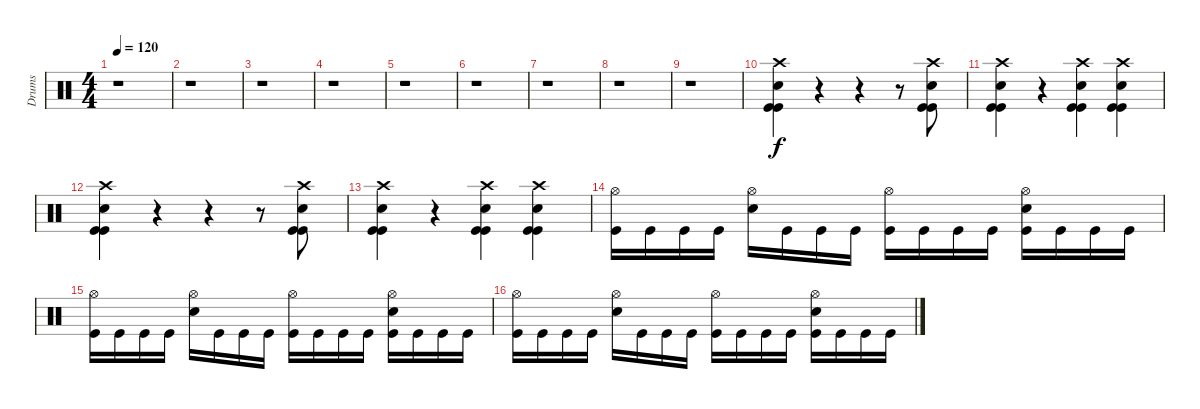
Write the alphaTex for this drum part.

\track ("Drums" "Drums") {instrument percussion}
\staff {score}
\articulation defaults
\ts (4 4)
\tempo 120
\clef neutral
\ks c
r.1{dy f} |
r.1 |
r.1 |
r.1 |
r.1 |
r.1 |
r.1 |
r.1 |
r.1 |
("Crash high (hit)" "Snare (hit) 2" "Kick (hit)" "Kick (hit)").4 r.4 r.4 r.8 ("Crash high (hit)" "Snare (hit) 2" "Kick (hit)" "Kick (hit)").8 |
("Crash high (hit)" "Snare (hit) 2" "Kick (hit)" "Kick (hit)").4 r.4 ("Crash high (hit)" "Snare (hit) 2" "Kick (hit)" "Kick (hit)").4 ("Crash high (hit)" "Snare (hit) 2" "Kick (hit)" "Kick (hit)").4 |
("Crash high (hit)" "Snare (hit) 2" "Kick (hit)" "Kick (hit)").4 r.4 r.4 r.8 ("Crash high (hit)" "Snare (hit) 2" "Kick (hit)" "Kick (hit)").8 |
("Crash high (hit)" "Snare (hit) 2" "Kick (hit)" "Kick (hit)").4 r.4 ("Crash high (hit)" "Snare (hit) 2" "Kick (hit)" "Kick (hit)").4 ("Crash high (hit)" "Snare (hit) 2" "Kick (hit)" "Kick (hit)").4 |
("Hi-Hat (open)" "Kick (hit)").16 "Kick (hit)".16 "Kick (hit)".16 "Kick (hit)".16 ("Hi-Hat (open)" "Snare (hit) 2").16 "Kick (hit)".16 "Kick (hit)".16 "Kick (hit)".16 ("Hi-Hat (open)" "Kick (hit)").16 "Kick (hit)".16 "Kick (hit)".16 "Kick (hit)".16 ("Hi-Hat (open)" "Snare (hit) 2" "Kick (hit)").16 "Kick (hit)".16 "Kick (hit)".16 "Kick (hit)".16 |
("Hi-Hat (open)" "Kick (hit)").16 "Kick (hit)".16 "Kick (hit)".16 "Kick (hit)".16 ("Hi-Hat (open)" "Snare (hit) 2").16 "Kick (hit)".16 "Kick (hit)".16 "Kick (hit)".16 ("Hi-Hat (open)" "Kick (hit)").16 "Kick (hit)".16 "Kick (hit)".16 "Kick (hit)".16 ("Hi-Hat (open)" "Snare (hit) 2" "Kick (hit)").16 "Kick (hit)".16 "Kick (hit)".16 "Kick (hit)".16 |
("Hi-Hat (open)" "Kick (hit)").16 "Kick (hit)".16 "Kick (hit)".16 "Kick (hit)".16 ("Hi-Hat (open)" "Snare (hit) 2").16 "Kick (hit)".16 "Kick (hit)".16 "Kick (hit)".16 ("Hi-Hat (open)" "Kick (hit)").16 "Kick (hit)".16 "Kick (hit)".16 "Kick (hit)".16 ("Hi-Hat (open)" "Snare (hit) 2" "Kick (hit)").16 "Kick (hit)".16 "Kick (hit)".16 "Kick (hit)".16
